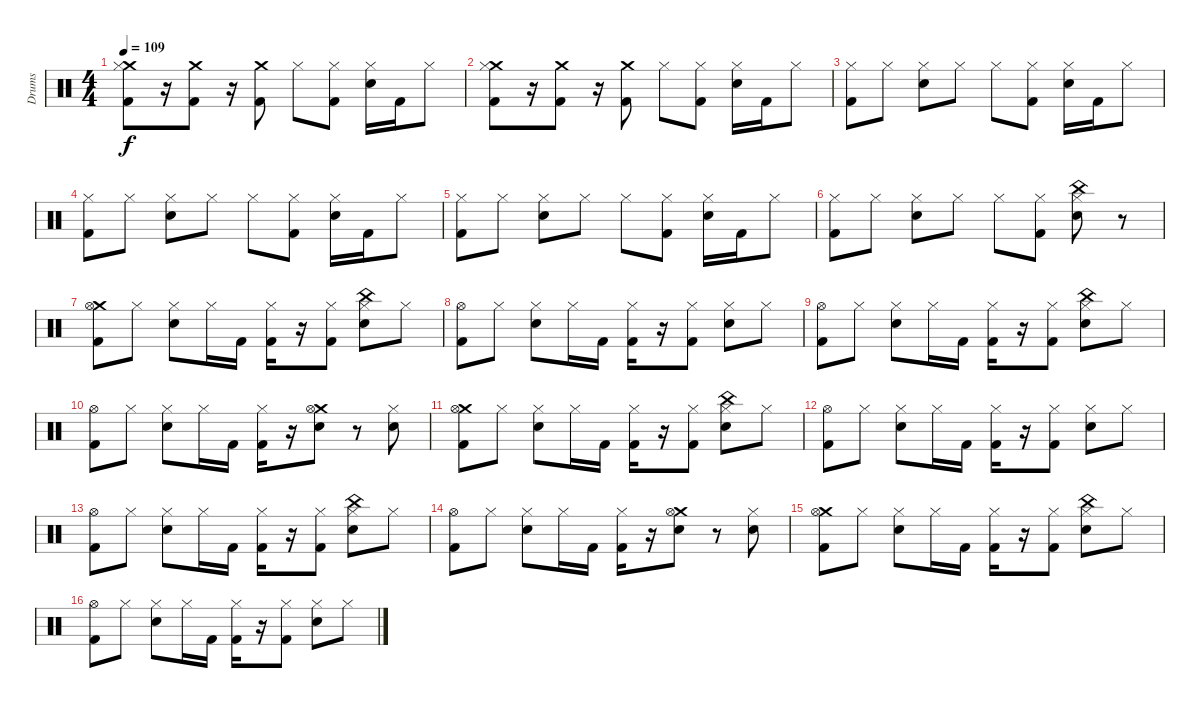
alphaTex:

\track ("Drums" "Drums") {instrument percussion}
\staff {score}
\articulation defaults
\ts (4 4)
\tempo 109
\clef neutral
\ks c
("Crash medium (hit)" "Hi-Hat (closed)" "Kick (hit) 2").8{dy f} r.16 ("Crash medium (hit)" "Kick (hit) 2").8 r.16 ("Crash medium (hit)" "Kick (hit) 2").8 "Hi-Hat (closed)".8 ("Hi-Hat (closed)" "Kick (hit) 2").8 ("Hi-Hat (closed)" "Snare (hit) 2").16 "Kick (hit) 2".16 "Hi-Hat (closed)".8 |
("Crash medium (hit)" "Hi-Hat (closed)" "Kick (hit) 2").8 r.16 ("Crash medium (hit)" "Kick (hit) 2").8 r.16 ("Crash medium (hit)" "Kick (hit) 2").8 "Hi-Hat (closed)".8 ("Hi-Hat (closed)" "Kick (hit) 2").8 ("Hi-Hat (closed)" "Snare (hit) 2").16 "Kick (hit) 2".16 "Hi-Hat (closed)".8 |
("Hi-Hat (closed)" "Kick (hit) 2").8 "Hi-Hat (closed)".8 ("Hi-Hat (closed)" "Snare (hit) 2").8 "Hi-Hat (closed)".8 "Hi-Hat (closed)".8 ("Hi-Hat (closed)" "Kick (hit) 2").8 ("Hi-Hat (closed)" "Snare (hit) 2").16 "Kick (hit) 2".16 "Hi-Hat (closed)".8 |
("Hi-Hat (closed)" "Kick (hit) 2").8 "Hi-Hat (closed)".8 ("Hi-Hat (closed)" "Snare (hit) 2").8 "Hi-Hat (closed)".8 "Hi-Hat (closed)".8 ("Hi-Hat (closed)" "Kick (hit) 2").8 ("Hi-Hat (closed)" "Snare (hit) 2").16 "Kick (hit) 2".16 "Hi-Hat (closed)".8 |
("Hi-Hat (closed)" "Kick (hit) 2").8 "Hi-Hat (closed)".8 ("Hi-Hat (closed)" "Snare (hit) 2").8 "Hi-Hat (closed)".8 "Hi-Hat (closed)".8 ("Hi-Hat (closed)" "Kick (hit) 2").8 ("Hi-Hat (closed)" "Snare (hit) 2").16 "Kick (hit) 2".16 "Hi-Hat (closed)".8 |
("Hi-Hat (closed)" "Kick (hit) 2").8 "Hi-Hat (closed)".8 ("Hi-Hat (closed)" "Snare (hit) 2").8 "Hi-Hat (closed)".8 "Hi-Hat (closed)".8 ("Hi-Hat (closed)" "Kick (hit) 2").8 ("China (hit)" "Hi-Hat (closed)" "Snare (hit) 2").8 r.8 |
("Crash medium (hit)" "Hi-Hat (open)" "Kick (hit) 2").8 "Hi-Hat (closed)".8 ("Hi-Hat (closed)" "Snare (hit) 2").8 "Hi-Hat (closed)".16 "Kick (hit) 2".16 ("Hi-Hat (closed)" "Kick (hit) 2").16 r.16 ("Hi-Hat (closed)" "Kick (hit) 2").8 ("China (hit)" "Hi-Hat (closed)" "Snare (hit) 2").8 "Hi-Hat (closed)".8 |
("Hi-Hat (open)" "Kick (hit) 2").8 "Hi-Hat (closed)".8 ("Hi-Hat (closed)" "Snare (hit) 2").8 "Hi-Hat (closed)".16 "Kick (hit) 2".16 ("Hi-Hat (closed)" "Kick (hit) 2").16 r.16 ("Hi-Hat (closed)" "Kick (hit) 2").8 ("Hi-Hat (closed)" "Snare (hit) 2").8 "Hi-Hat (closed)".8 |
("Hi-Hat (open)" "Kick (hit) 2").8 "Hi-Hat (closed)".8 ("Hi-Hat (closed)" "Snare (hit) 2").8 "Hi-Hat (closed)".16 "Kick (hit) 2".16 ("Hi-Hat (closed)" "Kick (hit) 2").16 r.16 ("Hi-Hat (closed)" "Kick (hit) 2").8 ("China (hit)" "Hi-Hat (closed)" "Snare (hit) 2").8 "Hi-Hat (closed)".8 |
("Hi-Hat (open)" "Kick (hit) 2").8 "Hi-Hat (closed)".8 ("Hi-Hat (closed)" "Snare (hit) 2").8 "Hi-Hat (closed)".16 "Kick (hit) 2".16 ("Hi-Hat (closed)" "Kick (hit) 2").16 r.16 ("Crash medium (hit)" "Hi-Hat (open)" "Snare (hit) 2").8 r.8 ("Snare (hit) 2" "Hi-Hat (closed)").8 |
("Crash medium (hit)" "Hi-Hat (open)" "Kick (hit) 2").8 "Hi-Hat (closed)".8 ("Hi-Hat (closed)" "Snare (hit) 2").8 "Hi-Hat (closed)".16 "Kick (hit) 2".16 ("Hi-Hat (closed)" "Kick (hit) 2").16 r.16 ("Hi-Hat (closed)" "Kick (hit) 2").8 ("China (hit)" "Hi-Hat (closed)" "Snare (hit) 2").8 "Hi-Hat (closed)".8 |
("Hi-Hat (open)" "Kick (hit) 2").8 "Hi-Hat (closed)".8 ("Hi-Hat (closed)" "Snare (hit) 2").8 "Hi-Hat (closed)".16 "Kick (hit) 2".16 ("Hi-Hat (closed)" "Kick (hit) 2").16 r.16 ("Hi-Hat (closed)" "Kick (hit) 2").8 ("Hi-Hat (closed)" "Snare (hit) 2").8 "Hi-Hat (closed)".8 |
("Hi-Hat (open)" "Kick (hit) 2").8 "Hi-Hat (closed)".8 ("Hi-Hat (closed)" "Snare (hit) 2").8 "Hi-Hat (closed)".16 "Kick (hit) 2".16 ("Hi-Hat (closed)" "Kick (hit) 2").16 r.16 ("Hi-Hat (closed)" "Kick (hit) 2").8 ("China (hit)" "Hi-Hat (closed)" "Snare (hit) 2").8 "Hi-Hat (closed)".8 |
("Hi-Hat (open)" "Kick (hit) 2").8 "Hi-Hat (closed)".8 ("Hi-Hat (closed)" "Snare (hit) 2").8 "Hi-Hat (closed)".16 "Kick (hit) 2".16 ("Hi-Hat (closed)" "Kick (hit) 2").16 r.16 ("Crash medium (hit)" "Hi-Hat (open)" "Snare (hit) 2").8 r.8 ("Snare (hit) 2" "Hi-Hat (closed)").8 |
("Crash medium (hit)" "Hi-Hat (open)" "Kick (hit) 2").8 "Hi-Hat (closed)".8 ("Hi-Hat (closed)" "Snare (hit) 2").8 "Hi-Hat (closed)".16 "Kick (hit) 2".16 ("Hi-Hat (closed)" "Kick (hit) 2").16 r.16 ("Hi-Hat (closed)" "Kick (hit) 2").8 ("China (hit)" "Hi-Hat (closed)" "Snare (hit) 2").8 "Hi-Hat (closed)".8 |
("Hi-Hat (open)" "Kick (hit) 2").8 "Hi-Hat (closed)".8 ("Hi-Hat (closed)" "Snare (hit) 2").8 "Hi-Hat (closed)".16 "Kick (hit) 2".16 ("Hi-Hat (closed)" "Kick (hit) 2").16 r.16 ("Hi-Hat (closed)" "Kick (hit) 2").8 ("Hi-Hat (closed)" "Snare (hit) 2").8 "Hi-Hat (closed)".8
